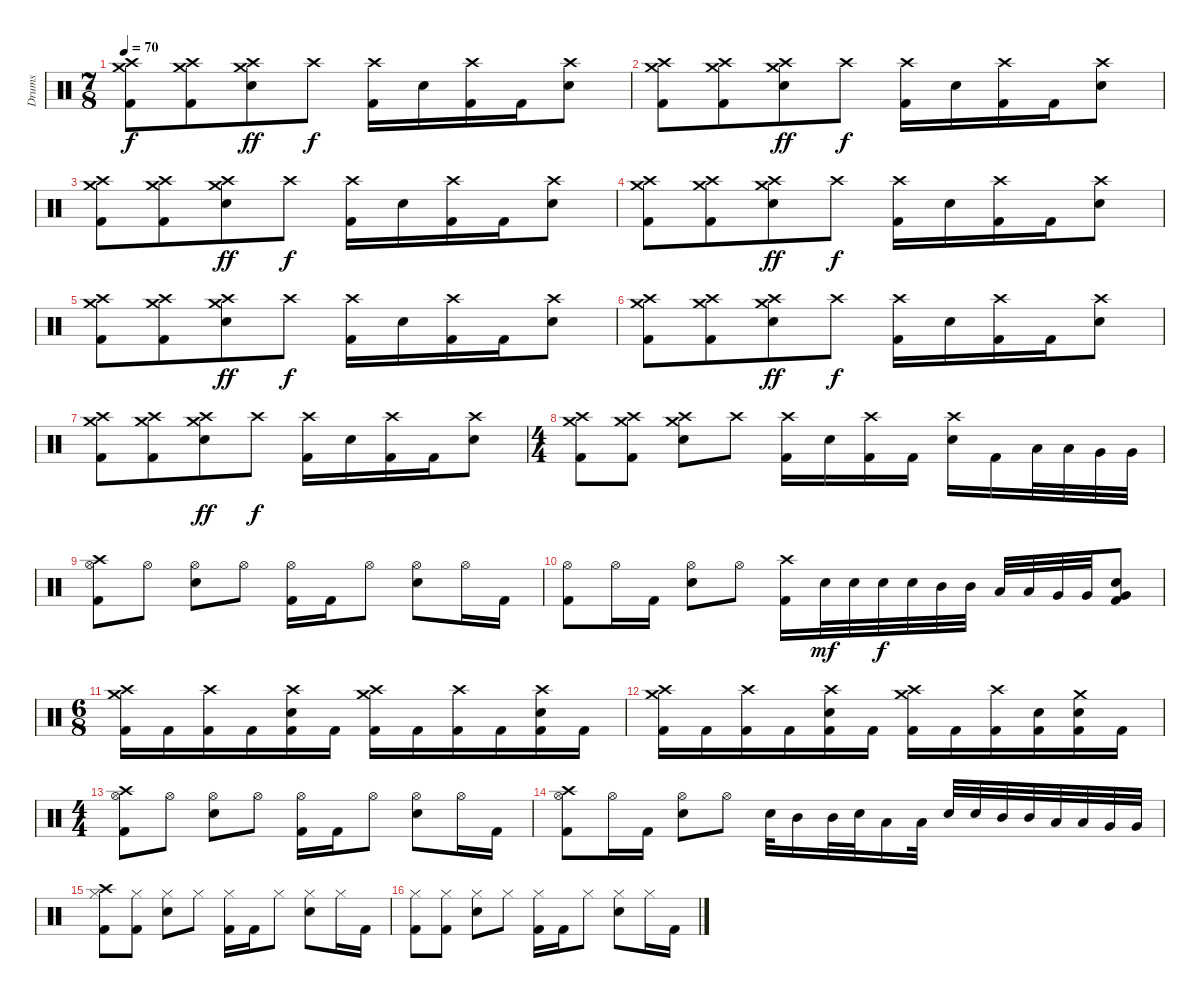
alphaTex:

\track ("Drums" "Drums") {instrument percussion}
\staff {score}
\articulation defaults
\ts (7 8)
\tempo 70
\clef neutral
\ks c
("Crash medium (hit)" "Crash high (hit)" "Kick (hit) 2").8{dy f} ("Crash medium (hit)" "Crash high (hit)" "Kick (hit) 2").8 ("Crash medium (hit)" "Crash high (hit)" "Electric Snare (hit)").8{dy ff} "Crash high (hit)".8{dy f} ("Crash high (hit)" "Kick (hit) 2").16 "Electric Snare (hit)".16 ("Crash high (hit)" "Kick (hit) 2").16 "Kick (hit) 2".16 ("Crash high (hit)" "Electric Snare (hit)").8 |
("Crash medium (hit)" "Crash high (hit)" "Kick (hit) 2").8 ("Crash medium (hit)" "Crash high (hit)" "Kick (hit) 2").8 ("Crash medium (hit)" "Crash high (hit)" "Electric Snare (hit)").8{dy ff} "Crash high (hit)".8{dy f} ("Crash high (hit)" "Kick (hit) 2").16 "Electric Snare (hit)".16 ("Crash high (hit)" "Kick (hit) 2").16 "Kick (hit) 2".16 ("Crash high (hit)" "Electric Snare (hit)").8 |
("Crash medium (hit)" "Crash high (hit)" "Kick (hit) 2").8 ("Crash medium (hit)" "Crash high (hit)" "Kick (hit) 2").8 ("Crash medium (hit)" "Crash high (hit)" "Electric Snare (hit)").8{dy ff} "Crash high (hit)".8{dy f} ("Crash high (hit)" "Kick (hit) 2").16 "Electric Snare (hit)".16 ("Crash high (hit)" "Kick (hit) 2").16 "Kick (hit) 2".16 ("Crash high (hit)" "Electric Snare (hit)").8 |
("Crash medium (hit)" "Crash high (hit)" "Kick (hit) 2").8 ("Crash medium (hit)" "Crash high (hit)" "Kick (hit) 2").8 ("Crash medium (hit)" "Crash high (hit)" "Electric Snare (hit)").8{dy ff} "Crash high (hit)".8{dy f} ("Crash high (hit)" "Kick (hit) 2").16 "Electric Snare (hit)".16 ("Crash high (hit)" "Kick (hit) 2").16 "Kick (hit) 2".16 ("Crash high (hit)" "Electric Snare (hit)").8 |
("Crash medium (hit)" "Crash high (hit)" "Kick (hit) 2").8 ("Crash medium (hit)" "Crash high (hit)" "Kick (hit) 2").8 ("Crash medium (hit)" "Crash high (hit)" "Electric Snare (hit)").8{dy ff} "Crash high (hit)".8{dy f} ("Crash high (hit)" "Kick (hit) 2").16 "Electric Snare (hit)".16 ("Crash high (hit)" "Kick (hit) 2").16 "Kick (hit) 2".16 ("Crash high (hit)" "Electric Snare (hit)").8 |
("Crash medium (hit)" "Crash high (hit)" "Kick (hit) 2").8 ("Crash medium (hit)" "Crash high (hit)" "Kick (hit) 2").8 ("Crash medium (hit)" "Crash high (hit)" "Electric Snare (hit)").8{dy ff} "Crash high (hit)".8{dy f} ("Crash high (hit)" "Kick (hit) 2").16 "Electric Snare (hit)".16 ("Crash high (hit)" "Kick (hit) 2").16 "Kick (hit) 2".16 ("Crash high (hit)" "Electric Snare (hit)").8 |
("Crash medium (hit)" "Crash high (hit)" "Kick (hit) 2").8 ("Crash medium (hit)" "Crash high (hit)" "Kick (hit) 2").8 ("Crash medium (hit)" "Crash high (hit)" "Electric Snare (hit)").8{dy ff} "Crash high (hit)".8{dy f} ("Crash high (hit)" "Kick (hit) 2").16 "Electric Snare (hit)".16 ("Crash high (hit)" "Kick (hit) 2").16 "Kick (hit) 2".16 ("Crash high (hit)" "Electric Snare (hit)").8 |
\ts (4 4)
("Crash medium (hit)" "Crash high (hit)" "Kick (hit) 2").8 ("Crash medium (hit)" "Crash high (hit)" "Kick (hit) 2").8 ("Crash medium (hit)" "Crash high (hit)" "Electric Snare (hit)").8 "Crash high (hit)".8 ("Crash high (hit)" "Kick (hit) 2").16 "Electric Snare (hit)".16 ("Crash high (hit)" "Kick (hit) 2").16 "Kick (hit) 2".16 ("Crash high (hit)" "Electric Snare (hit)").16 "Kick (hit) 2".16 "Low Tom (hit)".32 "Low Tom (hit)".32 "Very Low Tom (hit)".32 "Very Low Tom (hit)".32 |
("Crash high (hit)" "Hi-Hat (open)" "Kick (hit) 2").8 "Hi-Hat (open)".8 ("Hi-Hat (open)" "Electric Snare (hit)").8 "Hi-Hat (open)".8 ("Hi-Hat (open)" "Kick (hit) 2").16 "Kick (hit) 2".16 "Hi-Hat (open)".8 ("Hi-Hat (open)" "Electric Snare (hit)").8 "Hi-Hat (open)".16 "Kick (hit) 2".16 |
("Hi-Hat (open)" "Kick (hit) 2").8 "Hi-Hat (open)".16 "Kick (hit) 2".16 ("Hi-Hat (open)" "Electric Snare (hit)").8 "Hi-Hat (open)".8 ("Crash high (hit)" "Kick (hit) 2").16 "Electric Snare (hit)".32{dy mf} "Electric Snare (hit)".32 "Electric Snare (hit)".32{dy f} "Electric Snare (hit)".32 "Mid Tom (hit)".32 "Mid Tom (hit)".32 "Low Tom (hit)".32 "Low Tom (hit)".32 "Very Low Tom (hit)".32 "Very Low Tom (hit)".32 ("Very Low Tom (hit)" "Electric Snare (hit)" "Kick (hit) 2").8 |
\ts (6 8)
("Crash medium (hit)" "Crash high (hit)" "Kick (hit) 2").16 "Kick (hit) 2".16 ("Crash high (hit)" "Kick (hit) 2").16 "Kick (hit) 2".16 ("Crash high (hit)" "Electric Snare (hit)" "Kick (hit) 2").16 "Kick (hit) 2".16 ("Crash medium (hit)" "Crash high (hit)" "Kick (hit) 2").16 "Kick (hit) 2".16 ("Crash high (hit)" "Kick (hit) 2").16 "Kick (hit) 2".16 ("Crash high (hit)" "Electric Snare (hit)" "Kick (hit) 2").16 "Kick (hit) 2".16 |
("Crash medium (hit)" "Crash high (hit)" "Kick (hit) 2").16 "Kick (hit) 2".16 ("Crash high (hit)" "Kick (hit) 2").16 "Kick (hit) 2".16 ("Crash high (hit)" "Electric Snare (hit)" "Kick (hit) 2").16 "Kick (hit) 2".16 ("Crash medium (hit)" "Crash high (hit)" "Kick (hit) 2").16 "Kick (hit) 2".16 ("Crash high (hit)" "Kick (hit) 2").16 ("Electric Snare (hit)" "Kick (hit) 2").16 ("Crash medium (hit)" "Electric Snare (hit)" "Kick (hit) 2").16 "Kick (hit) 2".16 |
\ts (4 4)
("Crash high (hit)" "Hi-Hat (open)" "Kick (hit) 2").8 "Hi-Hat (open)".8 ("Hi-Hat (open)" "Electric Snare (hit)").8 "Hi-Hat (open)".8 ("Hi-Hat (open)" "Kick (hit) 2").16 "Kick (hit) 2".16 "Hi-Hat (open)".8 ("Hi-Hat (open)" "Electric Snare (hit)").8 "Hi-Hat (open)".16 "Kick (hit) 2".16 |
("Crash high (hit)" "Hi-Hat (open)" "Kick (hit) 2").8 "Hi-Hat (open)".16 "Kick (hit) 2".16 ("Hi-Hat (open)" "Electric Snare (hit)").8 "Hi-Hat (open)".8 "Electric Snare (hit)".32 "Mid Tom (hit)".16 "Mid Tom (hit)".32 "Electric Snare (hit)".32 "Low Tom (hit)".16 "Low Tom (hit)".32 "Electric Snare (hit)".32 "Electric Snare (hit)".32 "Mid Tom (hit)".32 "Mid Tom (hit)".32 "Low Tom (hit)".32 "Low Tom (hit)".32 "Very Low Tom (hit)".32 "Very Low Tom (hit)".32 |
("Crash high (hit)" "Hi-Hat (closed)" "Kick (hit) 2").8 ("Hi-Hat (closed)" "Kick (hit) 2").8 ("Hi-Hat (closed)" "Electric Snare (hit)").8 "Hi-Hat (closed)".8 ("Hi-Hat (closed)" "Kick (hit) 2").16 "Kick (hit) 2".16 "Hi-Hat (closed)".8 ("Hi-Hat (closed)" "Electric Snare (hit)").8 "Hi-Hat (closed)".16 "Kick (hit) 2".16 |
("Hi-Hat (closed)" "Kick (hit) 2").8 ("Hi-Hat (closed)" "Kick (hit) 2").8 ("Hi-Hat (closed)" "Electric Snare (hit)").8 "Hi-Hat (closed)".8 ("Hi-Hat (closed)" "Kick (hit) 2").16 "Kick (hit) 2".16 "Hi-Hat (closed)".8 ("Hi-Hat (closed)" "Electric Snare (hit)").8 "Hi-Hat (closed)".16 "Kick (hit) 2".16
